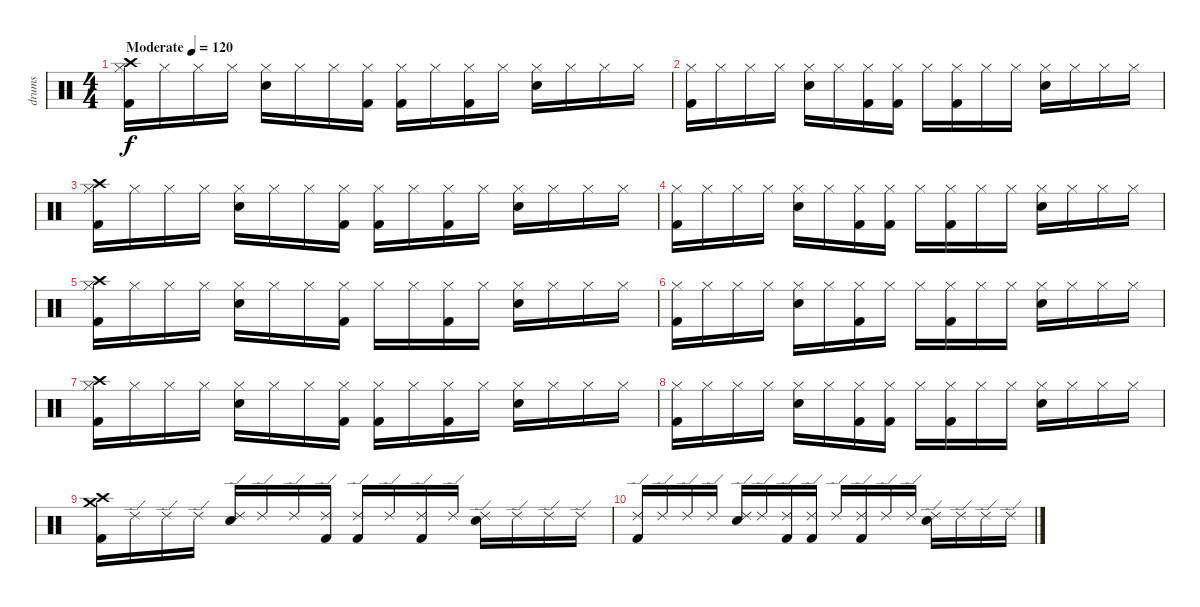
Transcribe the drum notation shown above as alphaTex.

\track ("drums" "drums") {instrument percussion}
\staff {score}
\articulation defaults
\ts (4 4)
\tempo (120 "Moderate")
\clef neutral
\ks c
("Crash high (hit)" "Hi-Hat (closed)" "Kick (hit) 2").16{dy f} "Hi-Hat (closed)".16 "Hi-Hat (closed)".16 "Hi-Hat (closed)".16 ("Hi-Hat (closed)" "Snare (hit) 2").16 "Hi-Hat (closed)".16 "Hi-Hat (closed)".16 ("Hi-Hat (closed)" "Kick (hit) 2").16 ("Hi-Hat (closed)" "Kick (hit) 2").16 "Hi-Hat (closed)".16 ("Hi-Hat (closed)" "Kick (hit) 2").16 "Hi-Hat (closed)".16 ("Hi-Hat (closed)" "Snare (hit) 2").16 "Hi-Hat (closed)".16 "Hi-Hat (closed)".16 "Hi-Hat (closed)".16 |
("Hi-Hat (closed)" "Kick (hit) 2").16 "Hi-Hat (closed)".16 "Hi-Hat (closed)".16 "Hi-Hat (closed)".16 ("Hi-Hat (closed)" "Snare (hit) 2").16 "Hi-Hat (closed)".16 ("Hi-Hat (closed)" "Kick (hit) 2").16 ("Hi-Hat (closed)" "Kick (hit) 2").16 "Hi-Hat (closed)".16 ("Hi-Hat (closed)" "Kick (hit) 2").16 "Hi-Hat (closed)".16 "Hi-Hat (closed)".16 ("Hi-Hat (closed)" "Snare (hit) 2").16 "Hi-Hat (closed)".16 "Hi-Hat (closed)".16 "Hi-Hat (closed)".16 |
("Crash high (hit)" "Hi-Hat (closed)" "Kick (hit) 2").16 "Hi-Hat (closed)".16 "Hi-Hat (closed)".16 "Hi-Hat (closed)".16 ("Hi-Hat (closed)" "Snare (hit) 2").16 "Hi-Hat (closed)".16 "Hi-Hat (closed)".16 ("Hi-Hat (closed)" "Kick (hit) 2").16 ("Hi-Hat (closed)" "Kick (hit) 2").16 "Hi-Hat (closed)".16 ("Hi-Hat (closed)" "Kick (hit) 2").16 "Hi-Hat (closed)".16 ("Hi-Hat (closed)" "Snare (hit) 2").16 "Hi-Hat (closed)".16 "Hi-Hat (closed)".16 "Hi-Hat (closed)".16 |
("Hi-Hat (closed)" "Kick (hit) 2").16 "Hi-Hat (closed)".16 "Hi-Hat (closed)".16 "Hi-Hat (closed)".16 ("Hi-Hat (closed)" "Snare (hit) 2").16 "Hi-Hat (closed)".16 ("Hi-Hat (closed)" "Kick (hit) 2").16 ("Hi-Hat (closed)" "Kick (hit) 2").16 "Hi-Hat (closed)".16 ("Hi-Hat (closed)" "Kick (hit) 2").16 "Hi-Hat (closed)".16 "Hi-Hat (closed)".16 ("Hi-Hat (closed)" "Snare (hit) 2").16 "Hi-Hat (closed)".16 "Hi-Hat (closed)".16 "Hi-Hat (closed)".16 |
("Crash high (hit)" "Hi-Hat (closed)" "Kick (hit) 2").16 "Hi-Hat (closed)".16 "Hi-Hat (closed)".16 "Hi-Hat (closed)".16 ("Hi-Hat (closed)" "Snare (hit) 2").16 "Hi-Hat (closed)".16 "Hi-Hat (closed)".16 ("Hi-Hat (closed)" "Kick (hit) 2").16 "Hi-Hat (closed)".16 "Hi-Hat (closed)".16 ("Hi-Hat (closed)" "Kick (hit) 2").16 "Hi-Hat (closed)".16 ("Hi-Hat (closed)" "Snare (hit) 2").16 "Hi-Hat (closed)".16 "Hi-Hat (closed)".16 "Hi-Hat (closed)".16 |
("Hi-Hat (closed)" "Kick (hit) 2").16 "Hi-Hat (closed)".16 "Hi-Hat (closed)".16 "Hi-Hat (closed)".16 ("Hi-Hat (closed)" "Snare (hit) 2").16 "Hi-Hat (closed)".16 ("Hi-Hat (closed)" "Kick (hit) 2").16 "Hi-Hat (closed)".16 "Hi-Hat (closed)".16 ("Hi-Hat (closed)" "Kick (hit) 2").16 "Hi-Hat (closed)".16 "Hi-Hat (closed)".16 ("Hi-Hat (closed)" "Snare (hit) 2").16 "Hi-Hat (closed)".16 "Hi-Hat (closed)".16 "Hi-Hat (closed)".16 |
("Crash high (hit)" "Hi-Hat (closed)" "Kick (hit) 2").16 "Hi-Hat (closed)".16 "Hi-Hat (closed)".16 "Hi-Hat (closed)".16 ("Hi-Hat (closed)" "Snare (hit) 2").16 "Hi-Hat (closed)".16 "Hi-Hat (closed)".16 ("Hi-Hat (closed)" "Kick (hit) 2").16 ("Hi-Hat (closed)" "Kick (hit) 2").16 "Hi-Hat (closed)".16 ("Hi-Hat (closed)" "Kick (hit) 2").16 "Hi-Hat (closed)".16 ("Hi-Hat (closed)" "Snare (hit) 2").16 "Hi-Hat (closed)".16 "Hi-Hat (closed)".16 "Hi-Hat (closed)".16 |
("Hi-Hat (closed)" "Kick (hit) 2").16 "Hi-Hat (closed)".16 "Hi-Hat (closed)".16 "Hi-Hat (closed)".16 ("Hi-Hat (closed)" "Snare (hit) 2").16 "Hi-Hat (closed)".16 ("Hi-Hat (closed)" "Kick (hit) 2").16 ("Hi-Hat (closed)" "Kick (hit) 2").16 "Hi-Hat (closed)".16 ("Hi-Hat (closed)" "Kick (hit) 2").16 "Hi-Hat (closed)".16 "Hi-Hat (closed)".16 ("Hi-Hat (closed)" "Snare (hit) 2").16 "Hi-Hat (closed)".16 "Hi-Hat (closed)".16 "Hi-Hat (closed)".16 |
("Crash high (hit)" "Crash medium (hit)" "Kick (hit) 2").16 "Ride (edge) 2".16 "Ride (edge) 2".16 "Ride (edge) 2".16 ("Ride (edge) 2" "Snare (hit) 2").16 "Ride (edge) 2".16 "Ride (edge) 2".16 ("Ride (edge) 2" "Kick (hit) 2").16 ("Ride (edge) 2" "Kick (hit) 2").16 "Ride (edge) 2".16 ("Ride (edge) 2" "Kick (hit) 2").16 "Ride (edge) 2".16 ("Ride (edge) 2" "Snare (hit) 2").16 "Ride (edge) 2".16 "Ride (edge) 2".16 "Ride (edge) 2".16 |
("Ride (edge) 2" "Kick (hit) 2").16 "Ride (edge) 2".16 "Ride (edge) 2".16 "Ride (edge) 2".16 ("Ride (edge) 2" "Snare (hit) 2").16 "Ride (edge) 2".16 ("Ride (edge) 2" "Kick (hit) 2").16 ("Ride (edge) 2" "Kick (hit) 2").16 "Ride (edge) 2".16 ("Ride (edge) 2" "Kick (hit) 2").16 "Ride (edge) 2".16 "Ride (edge) 2".16 ("Ride (edge) 2" "Snare (hit) 2").16 "Ride (edge) 2".16 "Ride (edge) 2".16 "Ride (edge) 2".16
